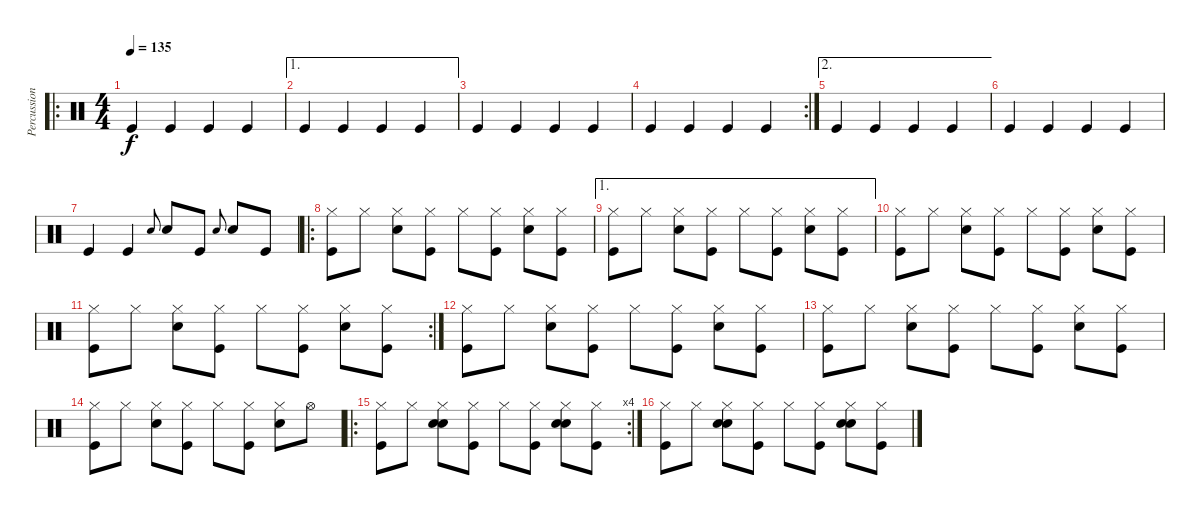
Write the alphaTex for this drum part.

\track ("Percussion" "Percussion") {instrument percussion}
\staff {score}
\articulation defaults
\ro
\ts (4 4)
\tempo 135
\clef neutral
\ks c "Kick (hit)".4{dy f} "Kick (hit)".4 "Kick (hit)".4 "Kick (hit)".4
|
\ae 1 "Kick (hit)".4 "Kick (hit)".4 "Kick (hit)".4 "Kick (hit)".4
|
"Kick (hit)".4 "Kick (hit)".4 "Kick (hit)".4 "Kick (hit)".4 |
\rc 2 "Kick (hit)".4 "Kick (hit)".4 "Kick (hit)".4 "Kick (hit)".4
|
\ae 2 "Kick (hit)".4 "Kick (hit)".4 "Kick (hit)".4 "Kick (hit)".4
|
"Kick (hit)".4 "Kick (hit)".4 "Kick (hit)".4 "Kick (hit)".4 |
"Kick (hit)".4 "Kick (hit)".4 "Snare (hit) 2".8{gr onbeat} "Snare (hit) 2".8 "Kick (hit)".8 "Snare (hit) 2".8{gr onbeat} "Snare (hit) 2".8 "Kick (hit)".8 |
\ro
("Hi-Hat (closed)" "Kick (hit)").8 "Hi-Hat (closed)".8 ("Hi-Hat (closed)" "Snare (hit) 2").8 ("Hi-Hat (closed)" "Kick (hit)").8 "Hi-Hat (closed)".8 ("Hi-Hat (closed)" "Kick (hit)").8 ("Hi-Hat (closed)" "Snare (hit) 2").8 ("Hi-Hat (closed)" "Kick (hit)").8 |
\ae 1
("Hi-Hat (closed)" "Kick (hit)").8 "Hi-Hat (closed)".8 ("Hi-Hat (closed)" "Snare (hit) 2").8 ("Hi-Hat (closed)" "Kick (hit)").8 "Hi-Hat (closed)".8 ("Hi-Hat (closed)" "Kick (hit)").8 ("Hi-Hat (closed)" "Snare (hit) 2").8 ("Hi-Hat (closed)" "Kick (hit)").8 |
("Hi-Hat (closed)" "Kick (hit)").8 "Hi-Hat (closed)".8 ("Hi-Hat (closed)" "Snare (hit) 2").8 ("Hi-Hat (closed)" "Kick (hit)").8 "Hi-Hat (closed)".8 ("Hi-Hat (closed)" "Kick (hit)").8 ("Hi-Hat (closed)" "Snare (hit) 2").8 ("Hi-Hat (closed)" "Kick (hit)").8 |
\rc 2
("Hi-Hat (closed)" "Kick (hit)").8 "Hi-Hat (closed)".8 ("Hi-Hat (closed)" "Snare (hit) 2").8 ("Hi-Hat (closed)" "Kick (hit)").8 "Hi-Hat (closed)".8 ("Hi-Hat (closed)" "Kick (hit)").8 ("Hi-Hat (closed)" "Snare (hit) 2").8 ("Hi-Hat (closed)" "Kick (hit)").8 |
("Hi-Hat (closed)" "Kick (hit)").8 "Hi-Hat (closed)".8 ("Hi-Hat (closed)" "Snare (hit) 2").8 ("Hi-Hat (closed)" "Kick (hit)").8 "Hi-Hat (closed)".8 ("Hi-Hat (closed)" "Kick (hit)").8 ("Hi-Hat (closed)" "Snare (hit) 2").8 ("Hi-Hat (closed)" "Kick (hit)").8 |
("Hi-Hat (closed)" "Kick (hit)").8 "Hi-Hat (closed)".8 ("Hi-Hat (closed)" "Snare (hit) 2").8 ("Hi-Hat (closed)" "Kick (hit)").8 "Hi-Hat (closed)".8 ("Hi-Hat (closed)" "Kick (hit)").8 ("Hi-Hat (closed)" "Snare (hit) 2").8 ("Hi-Hat (closed)" "Kick (hit)").8 |
("Hi-Hat (closed)" "Kick (hit)").8 "Hi-Hat (closed)".8 ("Hi-Hat (closed)" "Snare (hit) 2").8 ("Hi-Hat (closed)" "Kick (hit)").8 "Hi-Hat (closed)".8 ("Hi-Hat (closed)" "Kick (hit)").8 ("Hi-Hat (closed)" "Snare (hit) 2").8 "Hi-Hat (open)".8 |
\ro
\rc 4
("Hi-Hat (closed)" "Kick (hit)").8 "Hi-Hat (closed)".8 ("Hi-Hat (closed)" "Hand Clap (hit)" "Snare (hit) 2").8 ("Hi-Hat (closed)" "Kick (hit)").8 "Hi-Hat (closed)".8 ("Hi-Hat (closed)" "Kick (hit)").8 ("Hi-Hat (closed)" "Snare (hit) 2" "Hand Clap (hit)").8 ("Hi-Hat (closed)" "Kick (hit)").8 |
("Hi-Hat (closed)" "Kick (hit)").8 "Hi-Hat (closed)".8 ("Hi-Hat (closed)" "Hand Clap (hit)" "Snare (hit) 2").8 ("Hi-Hat (closed)" "Kick (hit)").8 "Hi-Hat (closed)".8 ("Hi-Hat (closed)" "Kick (hit)").8 ("Hi-Hat (closed)" "Snare (hit) 2" "Hand Clap (hit)").8 ("Hi-Hat (closed)" "Kick (hit)").8
